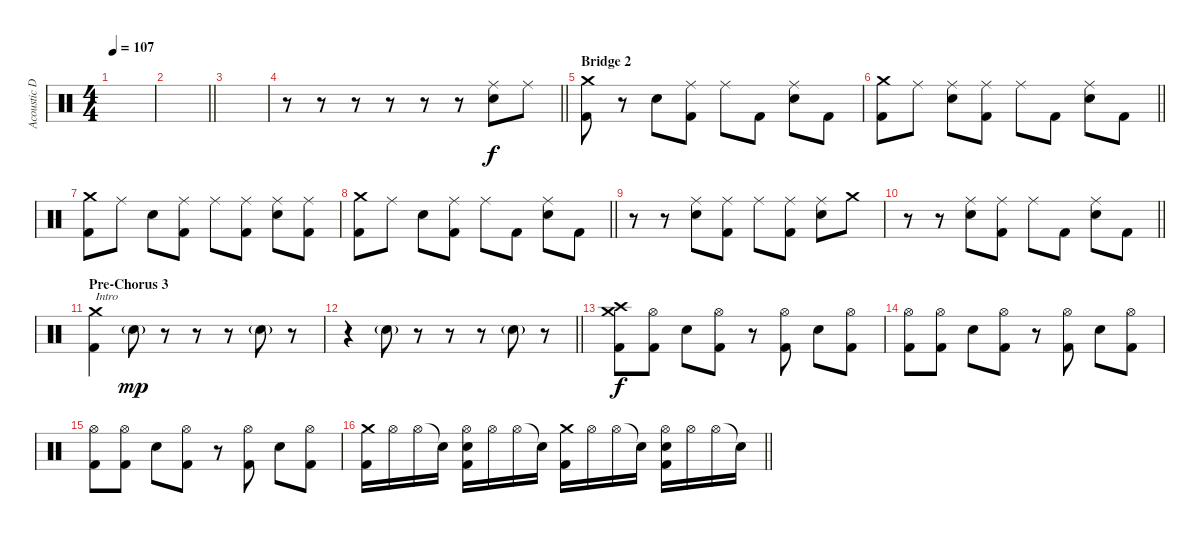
\track ("Acoustic Drums" "Acoustic D") {instrument percussion}
\staff {score}
\articulation defaults
\ts (4 4)
\tempo 107
\clef neutral
\ks c
|
\barLineRight lightlight
|
|
\barLineRight lightlight
r.8 r.8 r.8 r.8 r.8 r.8 ("Ride (middle)" "Snare (hit) 2").8 "Ride (middle)".8 |
\section ("" "Bridge 2")
("Crash medium (hit)" "Kick (hit) 2").8 r.8 "Snare (hit) 2".8 ("Ride (middle)" "Kick (hit) 2").8 "Ride (middle)".8 "Kick (hit) 2".8 ("Ride (middle)" "Snare (hit) 2").8 "Kick (hit) 2".8 |
\barLineRight lightlight
("Crash medium (hit)" "Kick (hit) 2").8 "Ride (middle)".8 ("Ride (middle)" "Snare (hit) 2").8 ("Ride (middle)" "Kick (hit) 2").8 "Ride (middle)".8 "Kick (hit) 2".8 ("Ride (middle)" "Snare (hit) 2").8 "Kick (hit) 2".8 |
("Crash medium (hit)" "Kick (hit) 2").8 "Ride (middle)".8 "Snare (hit) 2".8 ("Ride (middle)" "Kick (hit) 2").8 "Ride (middle)".8 ("Ride (middle)" "Kick (hit) 2").8 ("Ride (middle)" "Snare (hit) 2").8 ("Ride (middle)" "Kick (hit) 2").8 |
\barLineRight lightlight
("Crash medium (hit)" "Kick (hit) 2").8 "Ride (middle)".8 "Snare (hit) 2".8 ("Ride (middle)" "Kick (hit) 2").8 "Ride (middle)".8 "Kick (hit) 2".8 ("Ride (middle)" "Snare (hit) 2").8 "Kick (hit) 2".8 |
r.8 r.8 ("Ride (middle)" "Snare (hit) 2").8 ("Ride (middle)" "Kick (hit) 2").8 "Ride (middle)".8 ("Ride (middle)" "Kick (hit) 2").8 ("Ride (middle)" "Snare (hit) 2").8 "Crash medium (hit)".8 |
\barLineRight lightlight
r.8 r.8 ("Ride (middle)" "Snare (hit) 2").8 ("Ride (middle)" "Kick (hit) 2").8 "Ride (middle)".8 "Kick (hit) 2".8 ("Ride (middle)" "Snare (hit) 2").8 "Kick (hit) 2".8 |
\section ("" "Pre-Chorus 3")
("Crash medium (hit)" "Kick (hit) 2").4{txt "Intro"} "Snare (hit) 2"{g}.8{dy mp} r.8 r.8 r.8 "Snare (hit) 2"{g}.8 r.8 |
\barLineRight lightlight
r.4 "Snare (hit) 2"{g}.8 r.8 r.8 r.8 "Snare (hit) 2"{g}.8 r.8 |
("Crash medium (hit)" "Crash high (hit)" "Kick (hit) 2").8{dy f} ("Hi-Hat (open)" "Kick (hit) 2").8 "Snare (hit) 2".8 ("Hi-Hat (open)" "Kick (hit) 2").8 r.8 ("Hi-Hat (open)" "Kick (hit) 2").8 "Snare (hit) 2".8 ("Hi-Hat (open)" "Kick (hit) 2").8 |
("Hi-Hat (open)" "Kick (hit) 2").8 ("Hi-Hat (open)" "Kick (hit) 2").8 "Snare (hit) 2".8 ("Hi-Hat (open)" "Kick (hit) 2").8 r.8 ("Hi-Hat (open)" "Kick (hit) 2").8 "Snare (hit) 2".8 ("Hi-Hat (open)" "Kick (hit) 2").8 |
("Hi-Hat (open)" "Kick (hit) 2").8 ("Hi-Hat (open)" "Kick (hit) 2").8 "Snare (hit) 2".8 ("Hi-Hat (open)" "Kick (hit) 2").8 r.8 ("Hi-Hat (open)" "Kick (hit) 2").8 "Snare (hit) 2".8 ("Hi-Hat (open)" "Kick (hit) 2").8 |
\barLineRight lightlight
("Crash medium (hit)" "Kick (hit) 2").16 "Hi-Hat (open)".16 "Hi-Hat (open)".16 "Snare (hit)"{t}.16 ("Hi-Hat (open)" "Snare (hit) 2" "Kick (hit) 2").16 "Hi-Hat (open)".16 "Hi-Hat (open)".16 "Snare (hit)"{t}.16 ("Crash medium (hit)" "Kick (hit) 2").16 "Hi-Hat (open)".16 "Hi-Hat (open)".16 "Snare (hit)"{t}.16 ("Hi-Hat (open)" "Snare (hit) 2" "Kick (hit) 2").16 "Hi-Hat (open)".16 "Hi-Hat (open)".16 "Snare (hit)"{t}.16
